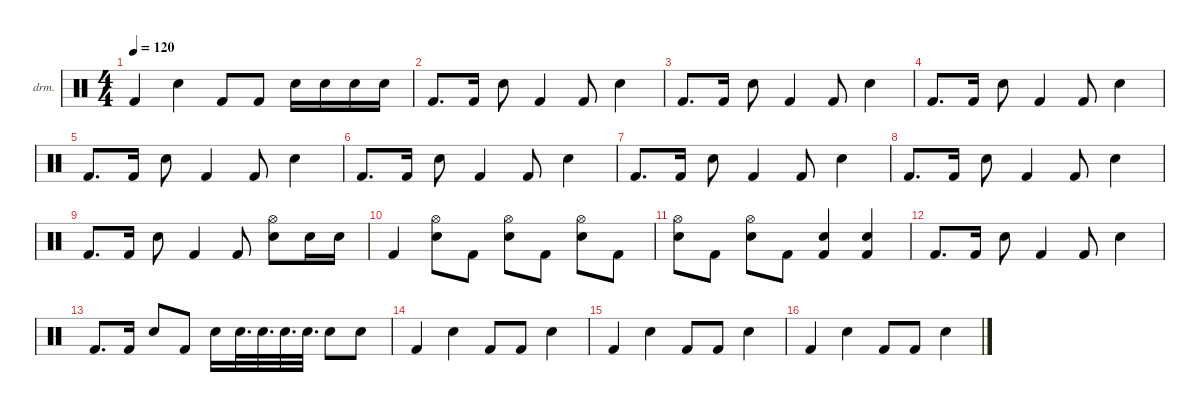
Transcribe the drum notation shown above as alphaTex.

\defaultSystemsLayout 4
\hideDynamics
\bracketExtendMode nobrackets
\firstSystemTrackNameOrientation horizontal
\otherSystemsTrackNameOrientation horizontal
\track ("Percussion" "drm.") {instrument percussion}
\staff {score}
\articulation defaults
\ts (4 4)
\tempo 120
\clef neutral
\ks c "Kick (hit) 2".4{dy f} "Snare (hit) 2".4 "Kick (hit) 2".8 "Kick (hit) 2".8 "Snare (hit) 2".16 "Snare (hit) 2".16 "Snare (hit) 2".16 "Snare (hit) 2".16
|
"Kick (hit) 2".8{d} "Kick (hit) 2".16 "Snare (hit) 2".8 "Kick (hit) 2".4 "Kick (hit) 2".8 "Snare (hit) 2".4 |
"Kick (hit) 2".8{d} "Kick (hit) 2".16 "Snare (hit) 2".8 "Kick (hit) 2".4 "Kick (hit) 2".8 "Snare (hit) 2".4 |
"Kick (hit) 2".8{d} "Kick (hit) 2".16 "Snare (hit) 2".8 "Kick (hit) 2".4 "Kick (hit) 2".8 "Snare (hit) 2".4 |
"Kick (hit) 2".8{d} "Kick (hit) 2".16 "Snare (hit) 2".8 "Kick (hit) 2".4 "Kick (hit) 2".8 "Snare (hit) 2".4 |
"Kick (hit) 2".8{d} "Kick (hit) 2".16 "Snare (hit) 2".8 "Kick (hit) 2".4 "Kick (hit) 2".8 "Snare (hit) 2".4 |
"Kick (hit) 2".8{d} "Kick (hit) 2".16 "Snare (hit) 2".8 "Kick (hit) 2".4 "Kick (hit) 2".8 "Snare (hit) 2".4 |
"Kick (hit) 2".8{d} "Kick (hit) 2".16 "Snare (hit) 2".8 "Kick (hit) 2".4 "Kick (hit) 2".8 "Snare (hit) 2".4 |
"Kick (hit) 2".8{d} "Kick (hit) 2".16 "Snare (hit) 2".8 "Kick (hit) 2".4 "Kick (hit) 2".8 ("Snare (hit) 2" "Hi-Hat (open)").8 "Snare (hit) 2".16 "Snare (hit) 2".16 |
"Kick (hit) 2".4 ("Snare (hit) 2" "Hi-Hat (open)").8 "Kick (hit) 2".8 ("Snare (hit) 2" "Hi-Hat (open)").8 "Kick (hit) 2".8 ("Snare (hit) 2" "Hi-Hat (open)").8 "Kick (hit) 2".8 |
("Snare (hit) 2" "Hi-Hat (open)").8 "Kick (hit) 2".8 ("Snare (hit) 2" "Hi-Hat (open)").8 "Kick (hit) 2".8 ("Snare (hit) 2" "Kick (hit) 2").4 ("Snare (hit) 2" "Kick (hit) 2").4 |
"Kick (hit) 2".8{d} "Kick (hit) 2".16 "Snare (hit) 2".8 "Kick (hit) 2".4 "Kick (hit) 2".8 "Snare (hit) 2".4 |
"Kick (hit) 2".8{d} "Kick (hit) 2".16 "Snare (hit) 2".8 "Kick (hit) 2".8 "Snare (hit) 2".16 "Snare (hit) 2".32{d} "Snare (hit) 2".32{d} "Snare (hit) 2".32{d} "Snare (hit) 2".32{d} "Snare (hit) 2".8 "Snare (hit) 2".8 |
"Kick (hit) 2".4 "Snare (hit) 2".4 "Kick (hit) 2".8 "Kick (hit) 2".8 "Snare (hit) 2".4 |
"Kick (hit) 2".4 "Snare (hit) 2".4 "Kick (hit) 2".8 "Kick (hit) 2".8 "Snare (hit) 2".4 |
"Kick (hit) 2".4 "Snare (hit) 2".4 "Kick (hit) 2".8 "Kick (hit) 2".8 "Snare (hit) 2".4
